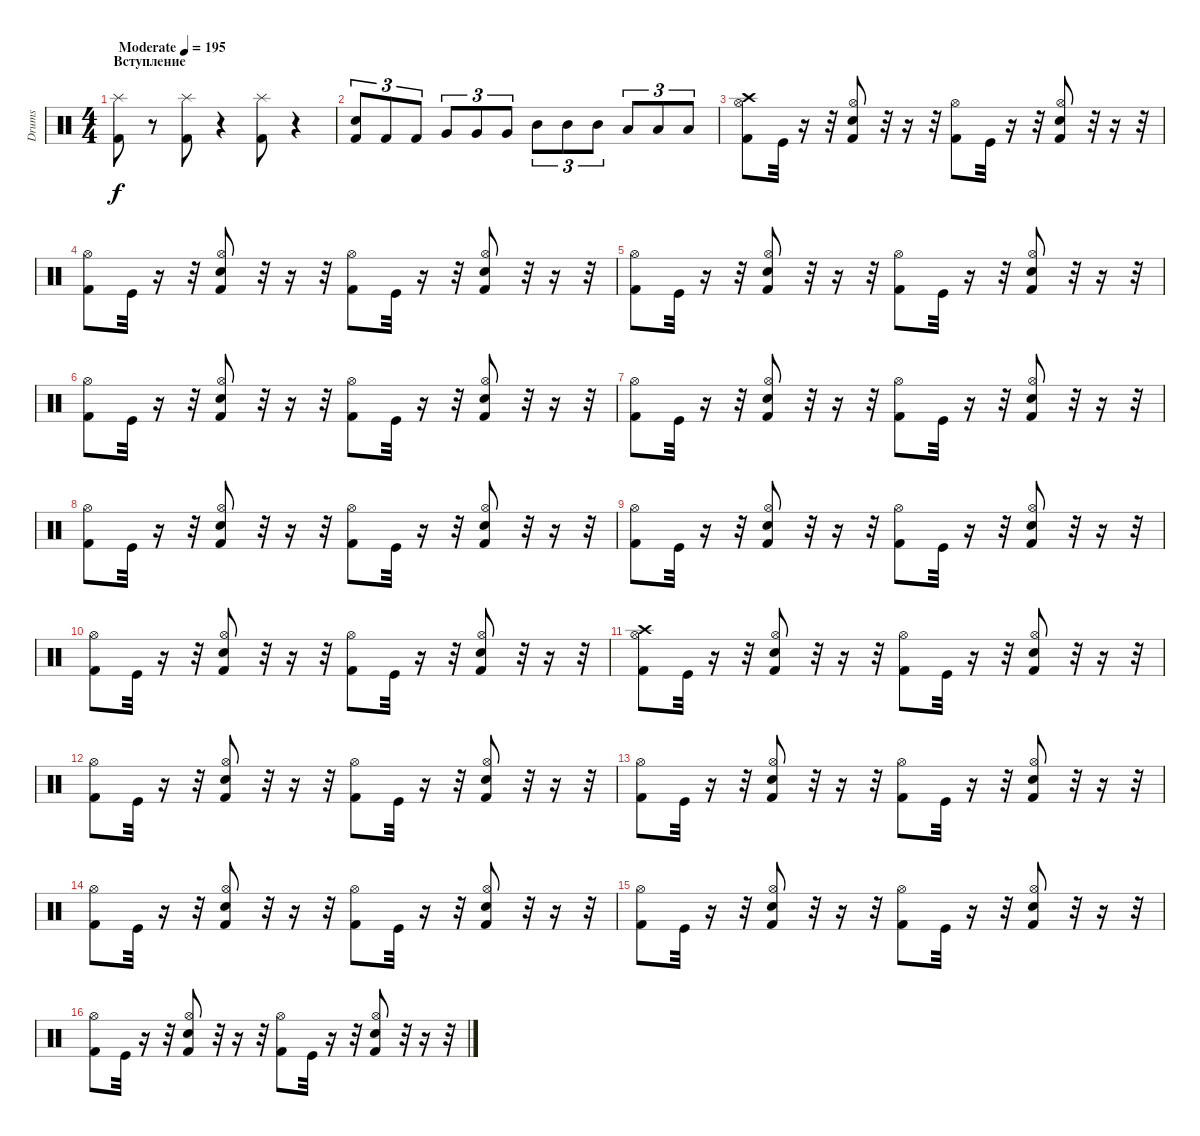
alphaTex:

\track ("Drums" "Drums") {instrument percussion}
\staff {score}
\articulation defaults
\ts (4 4)
\section ("" "Вступление")
\tempo (195 "Moderate")
\clef neutral
\ks c
("Splash (hit)" "Kick (hit) 2").8{dy f} r.8 ("Splash (hit)" "Kick (hit) 2").8 r.4 ("Splash (hit)" "Kick (hit) 2").8 r.4 |
("Electric Snare (hit)" "Kick (hit) 2").8{tu (3 2)} "Kick (hit) 2".8{tu (3 2)} "Kick (hit) 2".8{tu (3 2)} "Very Low Tom (hit)".8{tu (3 2)} "Very Low Tom (hit)".8{tu (3 2)} "Very Low Tom (hit)".8{tu (3 2)} "Mid Tom (hit)".8{tu (3 2)} "Mid Tom (hit)".8{tu (3 2)} "Mid Tom (hit)".8{tu (3 2)} "Low Tom (hit)".8{tu (3 2)} "Low Tom (hit)".8{tu (3 2)} "Low Tom (hit)".8{tu (3 2)} |
("Crash high (hit)" "Kick (hit) 2" "Hi-Hat (open)").8 "Kick (hit)".32 r.16 r.32 ("Snare (hit) 2" "Kick (hit) 2" "Hi-Hat (open)").8 r.32 r.16 r.32 ("Kick (hit) 2" "Hi-Hat (open)").8 "Kick (hit)".32 r.16 r.32 ("Snare (hit) 2" "Kick (hit) 2" "Hi-Hat (open)").8 r.32 r.16 r.32 |
("Kick (hit) 2" "Hi-Hat (open)").8 "Kick (hit)".32 r.16 r.32 ("Snare (hit) 2" "Kick (hit) 2" "Hi-Hat (open)").8 r.32 r.16 r.32 ("Kick (hit) 2" "Hi-Hat (open)").8 "Kick (hit)".32 r.16 r.32 ("Snare (hit) 2" "Kick (hit) 2" "Hi-Hat (open)").8 r.32 r.16 r.32 |
("Kick (hit) 2" "Hi-Hat (open)").8 "Kick (hit)".32 r.16 r.32 ("Snare (hit) 2" "Kick (hit) 2" "Hi-Hat (open)").8 r.32 r.16 r.32 ("Kick (hit) 2" "Hi-Hat (open)").8 "Kick (hit)".32 r.16 r.32 ("Snare (hit) 2" "Kick (hit) 2" "Hi-Hat (open)").8 r.32 r.16 r.32 |
("Kick (hit) 2" "Hi-Hat (open)").8 "Kick (hit)".32 r.16 r.32 ("Snare (hit) 2" "Kick (hit) 2" "Hi-Hat (open)").8 r.32 r.16 r.32 ("Kick (hit) 2" "Hi-Hat (open)").8 "Kick (hit)".32 r.16 r.32 ("Snare (hit) 2" "Kick (hit) 2" "Hi-Hat (open)").8 r.32 r.16 r.32 |
("Kick (hit) 2" "Hi-Hat (open)").8 "Kick (hit)".32 r.16 r.32 ("Snare (hit) 2" "Kick (hit) 2" "Hi-Hat (open)").8 r.32 r.16 r.32 ("Kick (hit) 2" "Hi-Hat (open)").8 "Kick (hit)".32 r.16 r.32 ("Snare (hit) 2" "Kick (hit) 2" "Hi-Hat (open)").8 r.32 r.16 r.32 |
("Kick (hit) 2" "Hi-Hat (open)").8 "Kick (hit)".32 r.16 r.32 ("Snare (hit) 2" "Kick (hit) 2" "Hi-Hat (open)").8 r.32 r.16 r.32 ("Kick (hit) 2" "Hi-Hat (open)").8 "Kick (hit)".32 r.16 r.32 ("Snare (hit) 2" "Kick (hit) 2" "Hi-Hat (open)").8 r.32 r.16 r.32 |
("Kick (hit) 2" "Hi-Hat (open)").8 "Kick (hit)".32 r.16 r.32 ("Snare (hit) 2" "Kick (hit) 2" "Hi-Hat (open)").8 r.32 r.16 r.32 ("Kick (hit) 2" "Hi-Hat (open)").8 "Kick (hit)".32 r.16 r.32 ("Snare (hit) 2" "Kick (hit) 2" "Hi-Hat (open)").8 r.32 r.16 r.32 |
("Kick (hit) 2" "Hi-Hat (open)").8 "Kick (hit)".32 r.16 r.32 ("Snare (hit) 2" "Kick (hit) 2" "Hi-Hat (open)").8 r.32 r.16 r.32 ("Kick (hit) 2" "Hi-Hat (open)").8 "Kick (hit)".32 r.16 r.32 ("Snare (hit) 2" "Kick (hit) 2" "Hi-Hat (open)").8 r.32 r.16 r.32 |
("Crash high (hit)" "Kick (hit) 2" "Hi-Hat (open)").8 "Kick (hit)".32 r.16 r.32 ("Snare (hit) 2" "Kick (hit) 2" "Hi-Hat (open)").8 r.32 r.16 r.32 ("Kick (hit) 2" "Hi-Hat (open)").8 "Kick (hit)".32 r.16 r.32 ("Snare (hit) 2" "Kick (hit) 2" "Hi-Hat (open)").8 r.32 r.16 r.32 |
("Kick (hit) 2" "Hi-Hat (open)").8 "Kick (hit)".32 r.16 r.32 ("Snare (hit) 2" "Kick (hit) 2" "Hi-Hat (open)").8 r.32 r.16 r.32 ("Kick (hit) 2" "Hi-Hat (open)").8 "Kick (hit)".32 r.16 r.32 ("Snare (hit) 2" "Kick (hit) 2" "Hi-Hat (open)").8 r.32 r.16 r.32 |
("Kick (hit) 2" "Hi-Hat (open)").8 "Kick (hit)".32 r.16 r.32 ("Snare (hit) 2" "Kick (hit) 2" "Hi-Hat (open)").8 r.32 r.16 r.32 ("Kick (hit) 2" "Hi-Hat (open)").8 "Kick (hit)".32 r.16 r.32 ("Snare (hit) 2" "Kick (hit) 2" "Hi-Hat (open)").8 r.32 r.16 r.32 |
("Kick (hit) 2" "Hi-Hat (open)").8 "Kick (hit)".32 r.16 r.32 ("Snare (hit) 2" "Kick (hit) 2" "Hi-Hat (open)").8 r.32 r.16 r.32 ("Kick (hit) 2" "Hi-Hat (open)").8 "Kick (hit)".32 r.16 r.32 ("Snare (hit) 2" "Kick (hit) 2" "Hi-Hat (open)").8 r.32 r.16 r.32 |
("Kick (hit) 2" "Hi-Hat (open)").8 "Kick (hit)".32 r.16 r.32 ("Snare (hit) 2" "Kick (hit) 2" "Hi-Hat (open)").8 r.32 r.16 r.32 ("Kick (hit) 2" "Hi-Hat (open)").8 "Kick (hit)".32 r.16 r.32 ("Snare (hit) 2" "Kick (hit) 2" "Hi-Hat (open)").8 r.32 r.16 r.32 |
("Kick (hit) 2" "Hi-Hat (open)").8 "Kick (hit)".32 r.16 r.32 ("Snare (hit) 2" "Kick (hit) 2" "Hi-Hat (open)").8 r.32 r.16 r.32 ("Kick (hit) 2" "Hi-Hat (open)").8 "Kick (hit)".32 r.16 r.32 ("Snare (hit) 2" "Kick (hit) 2" "Hi-Hat (open)").8 r.32 r.16 r.32
